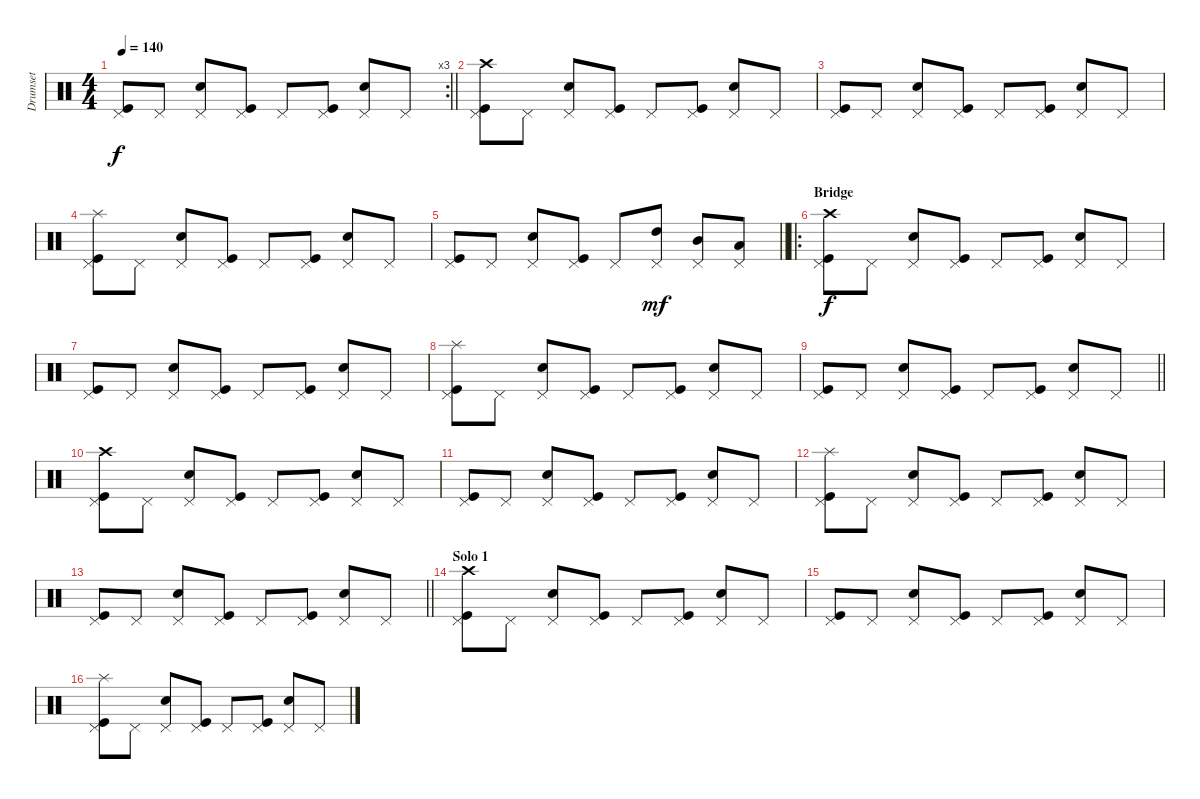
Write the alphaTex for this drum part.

\track ("Drumset" "Drumset") {instrument percussion}
\staff {score}
\articulation defaults
\rc 3
\ts (4 4)
\tempo 140
\clef neutral
\barLineRight lightlight
\ks c
("Pedal Hi-Hat (hit)" "Kick (hit)").8{dy f} "Pedal Hi-Hat (hit)".8 ("Pedal Hi-Hat (hit)" "Snare (hit) 2").8 ("Pedal Hi-Hat (hit)" "Kick (hit)").8 "Pedal Hi-Hat (hit)".8 ("Pedal Hi-Hat (hit)" "Kick (hit)").8 ("Pedal Hi-Hat (hit)" "Snare (hit) 2").8 "Pedal Hi-Hat (hit)".8 |
("Pedal Hi-Hat (hit)" "Kick (hit)" "Crash high (hit)").8 "Pedal Hi-Hat (hit)".8 ("Pedal Hi-Hat (hit)" "Snare (hit) 2").8 ("Pedal Hi-Hat (hit)" "Kick (hit)").8 "Pedal Hi-Hat (hit)".8 ("Pedal Hi-Hat (hit)" "Kick (hit)").8 ("Pedal Hi-Hat (hit)" "Snare (hit) 2").8 "Pedal Hi-Hat (hit)".8 |
("Pedal Hi-Hat (hit)" "Kick (hit)").8 "Pedal Hi-Hat (hit)".8 ("Pedal Hi-Hat (hit)" "Snare (hit) 2").8 ("Pedal Hi-Hat (hit)" "Kick (hit)").8 "Pedal Hi-Hat (hit)".8 ("Pedal Hi-Hat (hit)" "Kick (hit)").8 ("Pedal Hi-Hat (hit)" "Snare (hit) 2").8 "Pedal Hi-Hat (hit)".8 |
("Pedal Hi-Hat (hit)" "Kick (hit)" "Splash (hit)").8 "Pedal Hi-Hat (hit)".8 ("Pedal Hi-Hat (hit)" "Snare (hit) 2").8 ("Pedal Hi-Hat (hit)" "Kick (hit)").8 "Pedal Hi-Hat (hit)".8 ("Pedal Hi-Hat (hit)" "Kick (hit)").8 ("Pedal Hi-Hat (hit)" "Snare (hit) 2").8 "Pedal Hi-Hat (hit)".8 |
\barLineRight lightlight
("Pedal Hi-Hat (hit)" "Kick (hit)").8 "Pedal Hi-Hat (hit)".8 ("Pedal Hi-Hat (hit)" "Snare (hit) 2").8 ("Pedal Hi-Hat (hit)" "Kick (hit)").8 "Pedal Hi-Hat (hit)".8 ("Pedal Hi-Hat (hit)" "High Tom (hit)").8{dy mf} ("Pedal Hi-Hat (hit)" "Mid Tom (hit)").8 ("Pedal Hi-Hat (hit)" "Low Tom (hit)").8 |
\ro
\section ("" "Bridge")
("Pedal Hi-Hat (hit)" "Kick (hit)" "Crash high (hit)").8{dy f} "Pedal Hi-Hat (hit)".8 ("Pedal Hi-Hat (hit)" "Snare (hit) 2").8 ("Pedal Hi-Hat (hit)" "Kick (hit)").8 "Pedal Hi-Hat (hit)".8 ("Pedal Hi-Hat (hit)" "Kick (hit)").8 ("Pedal Hi-Hat (hit)" "Snare (hit) 2").8 "Pedal Hi-Hat (hit)".8 |
("Pedal Hi-Hat (hit)" "Kick (hit)").8 "Pedal Hi-Hat (hit)".8 ("Pedal Hi-Hat (hit)" "Snare (hit) 2").8 ("Pedal Hi-Hat (hit)" "Kick (hit)").8 "Pedal Hi-Hat (hit)".8 ("Pedal Hi-Hat (hit)" "Kick (hit)").8 ("Pedal Hi-Hat (hit)" "Snare (hit) 2").8 "Pedal Hi-Hat (hit)".8 |
("Pedal Hi-Hat (hit)" "Kick (hit)" "Splash (hit)").8 "Pedal Hi-Hat (hit)".8 ("Pedal Hi-Hat (hit)" "Snare (hit) 2").8 ("Pedal Hi-Hat (hit)" "Kick (hit)").8 "Pedal Hi-Hat (hit)".8 ("Pedal Hi-Hat (hit)" "Kick (hit)").8 ("Pedal Hi-Hat (hit)" "Snare (hit) 2").8 "Pedal Hi-Hat (hit)".8 |
\barLineRight lightlight
("Pedal Hi-Hat (hit)" "Kick (hit)").8 "Pedal Hi-Hat (hit)".8 ("Pedal Hi-Hat (hit)" "Snare (hit) 2").8 ("Pedal Hi-Hat (hit)" "Kick (hit)").8 "Pedal Hi-Hat (hit)".8 ("Pedal Hi-Hat (hit)" "Kick (hit)").8 ("Pedal Hi-Hat (hit)" "Snare (hit) 2").8 "Pedal Hi-Hat (hit)".8 |
("Pedal Hi-Hat (hit)" "Kick (hit)" "Crash high (hit)").8 "Pedal Hi-Hat (hit)".8 ("Pedal Hi-Hat (hit)" "Snare (hit) 2").8 ("Pedal Hi-Hat (hit)" "Kick (hit)").8 "Pedal Hi-Hat (hit)".8 ("Pedal Hi-Hat (hit)" "Kick (hit)").8 ("Pedal Hi-Hat (hit)" "Snare (hit) 2").8 "Pedal Hi-Hat (hit)".8 |
("Pedal Hi-Hat (hit)" "Kick (hit)").8 "Pedal Hi-Hat (hit)".8 ("Pedal Hi-Hat (hit)" "Snare (hit) 2").8 ("Pedal Hi-Hat (hit)" "Kick (hit)").8 "Pedal Hi-Hat (hit)".8 ("Pedal Hi-Hat (hit)" "Kick (hit)").8 ("Pedal Hi-Hat (hit)" "Snare (hit) 2").8 "Pedal Hi-Hat (hit)".8 |
("Pedal Hi-Hat (hit)" "Kick (hit)" "Splash (hit)").8 "Pedal Hi-Hat (hit)".8 ("Pedal Hi-Hat (hit)" "Snare (hit) 2").8 ("Pedal Hi-Hat (hit)" "Kick (hit)").8 "Pedal Hi-Hat (hit)".8 ("Pedal Hi-Hat (hit)" "Kick (hit)").8 ("Pedal Hi-Hat (hit)" "Snare (hit) 2").8 "Pedal Hi-Hat (hit)".8 |
\barLineRight lightlight
("Pedal Hi-Hat (hit)" "Kick (hit)").8 "Pedal Hi-Hat (hit)".8 ("Pedal Hi-Hat (hit)" "Snare (hit) 2").8 ("Pedal Hi-Hat (hit)" "Kick (hit)").8 "Pedal Hi-Hat (hit)".8 ("Pedal Hi-Hat (hit)" "Kick (hit)").8 ("Pedal Hi-Hat (hit)" "Snare (hit) 2").8 "Pedal Hi-Hat (hit)".8 |
\section ("" "Solo 1")
("Pedal Hi-Hat (hit)" "Kick (hit)" "Crash high (hit)").8 "Pedal Hi-Hat (hit)".8 ("Pedal Hi-Hat (hit)" "Snare (hit) 2").8 ("Pedal Hi-Hat (hit)" "Kick (hit)").8 "Pedal Hi-Hat (hit)".8 ("Pedal Hi-Hat (hit)" "Kick (hit)").8 ("Pedal Hi-Hat (hit)" "Snare (hit) 2").8 "Pedal Hi-Hat (hit)".8 |
("Pedal Hi-Hat (hit)" "Kick (hit)").8 "Pedal Hi-Hat (hit)".8 ("Pedal Hi-Hat (hit)" "Snare (hit) 2").8 ("Pedal Hi-Hat (hit)" "Kick (hit)").8 "Pedal Hi-Hat (hit)".8 ("Pedal Hi-Hat (hit)" "Kick (hit)").8 ("Pedal Hi-Hat (hit)" "Snare (hit) 2").8 "Pedal Hi-Hat (hit)".8 |
("Pedal Hi-Hat (hit)" "Kick (hit)" "Splash (hit)").8 "Pedal Hi-Hat (hit)".8 ("Pedal Hi-Hat (hit)" "Snare (hit) 2").8 ("Pedal Hi-Hat (hit)" "Kick (hit)").8 "Pedal Hi-Hat (hit)".8 ("Pedal Hi-Hat (hit)" "Kick (hit)").8 ("Pedal Hi-Hat (hit)" "Snare (hit) 2").8 "Pedal Hi-Hat (hit)".8
